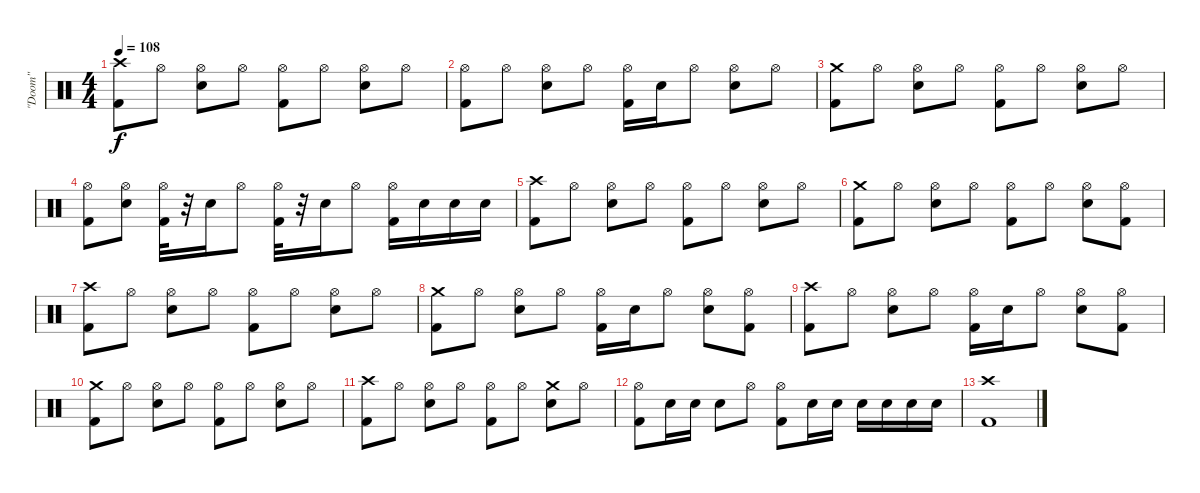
\track ("\"Doom\"" "\"Doom\"") {instrument percussion}
\staff {score}
\articulation defaults
\ts (4 4)
\tempo 108
\clef neutral
\ks c
("Crash high (hit)" "Kick (hit) 2").8{dy f} "Hi-Hat (open)".8 ("Hi-Hat (open)" "Snare (hit) 2").8 "Hi-Hat (open)".8 ("Hi-Hat (open)" "Kick (hit) 2").8 "Hi-Hat (open)".8 ("Hi-Hat (open)" "Snare (hit) 2").8 "Hi-Hat (open)".8 |
("Hi-Hat (open)" "Kick (hit) 2").8 "Hi-Hat (open)".8 ("Hi-Hat (open)" "Snare (hit) 2").8 "Hi-Hat (open)".8 ("Hi-Hat (open)" "Kick (hit) 2").16 "Snare (hit) 2".16 "Hi-Hat (open)".8 ("Hi-Hat (open)" "Snare (hit) 2").8 "Hi-Hat (open)".8 |
("Crash medium (hit)" "Kick (hit) 2").8 "Hi-Hat (open)".8 ("Hi-Hat (open)" "Snare (hit) 2").8 "Hi-Hat (open)".8 ("Hi-Hat (open)" "Kick (hit) 2").8 "Hi-Hat (open)".8 ("Hi-Hat (open)" "Snare (hit) 2").8 "Hi-Hat (open)".8 |
("Hi-Hat (open)" "Kick (hit) 2").8 ("Hi-Hat (open)" "Snare (hit) 2").8 ("Hi-Hat (open)" "Kick (hit) 2").32 r.32 "Snare (hit) 2".16 "Hi-Hat (open)".8 ("Hi-Hat (open)" "Kick (hit) 2").32 r.32 "Snare (hit) 2".16 "Hi-Hat (open)".8 ("Hi-Hat (open)" "Kick (hit) 2").16 "Snare (hit) 2".16 "Snare (hit) 2".16 "Snare (hit) 2".16 |
("Crash high (hit)" "Kick (hit) 2").8 "Hi-Hat (open)".8 ("Hi-Hat (open)" "Snare (hit) 2").8 "Hi-Hat (open)".8 ("Hi-Hat (open)" "Kick (hit) 2").8 "Hi-Hat (open)".8 ("Hi-Hat (open)" "Snare (hit) 2").8 "Hi-Hat (open)".8 |
("Crash medium (hit)" "Kick (hit) 2").8 "Hi-Hat (open)".8 ("Hi-Hat (open)" "Snare (hit) 2").8 "Hi-Hat (open)".8 ("Hi-Hat (open)" "Kick (hit) 2").8 "Hi-Hat (open)".8 ("Hi-Hat (open)" "Snare (hit) 2").8 ("Hi-Hat (open)" "Kick (hit) 2").8 |
("Crash high (hit)" "Kick (hit) 2").8 "Hi-Hat (open)".8 ("Hi-Hat (open)" "Snare (hit) 2").8 "Hi-Hat (open)".8 ("Hi-Hat (open)" "Kick (hit) 2").8 "Hi-Hat (open)".8 ("Hi-Hat (open)" "Snare (hit) 2").8 "Hi-Hat (open)".8 |
("Crash medium (hit)" "Kick (hit) 2").8 "Hi-Hat (open)".8 ("Hi-Hat (open)" "Snare (hit) 2").8 "Hi-Hat (open)".8 ("Hi-Hat (open)" "Kick (hit) 2").16 "Snare (hit) 2".16 "Hi-Hat (open)".8 ("Hi-Hat (open)" "Snare (hit) 2").8 ("Hi-Hat (open)" "Kick (hit) 2").8 |
("Crash high (hit)" "Kick (hit) 2").8 "Hi-Hat (open)".8 ("Hi-Hat (open)" "Snare (hit) 2").8 "Hi-Hat (open)".8 ("Hi-Hat (open)" "Kick (hit) 2").16 "Snare (hit) 2".16 "Hi-Hat (open)".8 ("Hi-Hat (open)" "Snare (hit) 2").8 ("Hi-Hat (open)" "Kick (hit) 2").8 |
("Crash medium (hit)" "Kick (hit) 2").8 "Hi-Hat (open)".8 ("Hi-Hat (open)" "Snare (hit) 2").8 "Hi-Hat (open)".8 ("Hi-Hat (open)" "Kick (hit) 2").8 "Hi-Hat (open)".8 ("Hi-Hat (open)" "Snare (hit) 2").8 "Hi-Hat (open)".8 |
("Crash high (hit)" "Kick (hit) 2").8 "Hi-Hat (open)".8 ("Hi-Hat (open)" "Snare (hit) 2").8 "Hi-Hat (open)".8 ("Hi-Hat (open)" "Kick (hit) 2").8 "Hi-Hat (open)".8 ("Crash medium (hit)" "Snare (hit) 2").8 "Hi-Hat (open)".8 |
("Hi-Hat (open)" "Kick (hit) 2").8 "Snare (hit) 2".16 "Snare (hit) 2".16 "Snare (hit) 2".8 "Hi-Hat (open)".8 ("Hi-Hat (open)" "Kick (hit) 2").8 "Snare (hit) 2".16 "Snare (hit) 2".16 "Snare (hit) 2".16 "Snare (hit) 2".16 "Snare (hit) 2".16 "Snare (hit) 2".16 |
("Crash high (hit)" "Kick (hit) 2").1
